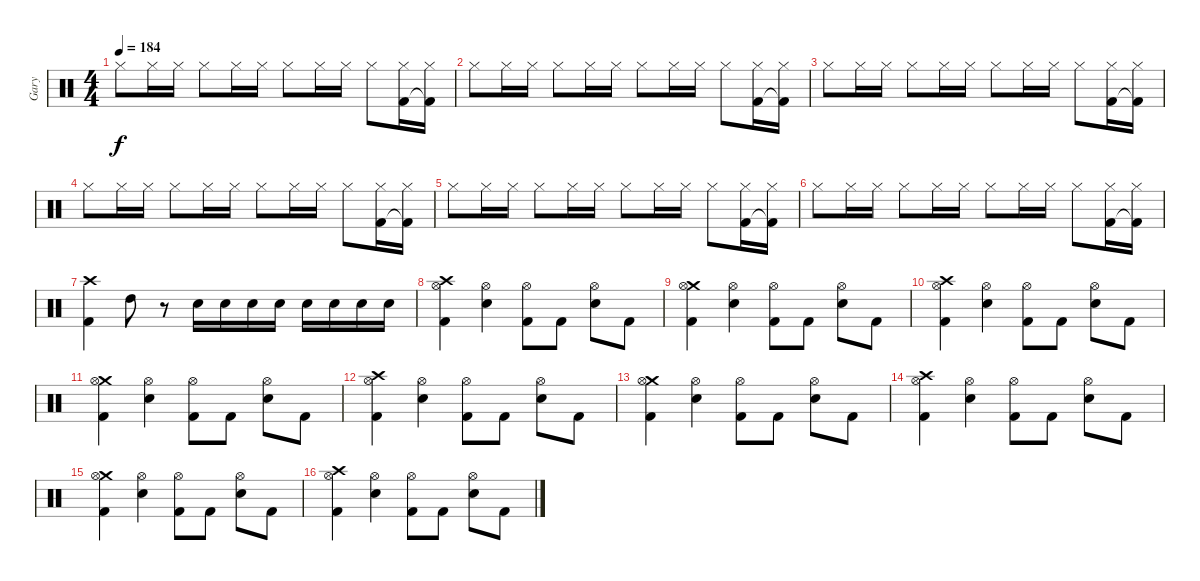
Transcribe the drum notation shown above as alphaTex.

\track ("Gary" "Gary") {instrument percussion}
\staff {score}
\articulation defaults
\ts (4 4)
\tempo 184
\clef neutral
\ks c "Hi-Hat (closed)".8{dy f} "Hi-Hat (closed)".16 "Hi-Hat (closed)".16 "Hi-Hat (closed)".8 "Hi-Hat (closed)".16 "Hi-Hat (closed)".16 "Hi-Hat (closed)".8 "Hi-Hat (closed)".16 "Hi-Hat (closed)".16 "Hi-Hat (closed)".8
("Hi-Hat (closed)" "Kick (hit) 2").16 ("Hi-Hat (closed)" "Kick (hit) 2"{t}).16 |
"Hi-Hat (closed)".8 "Hi-Hat (closed)".16 "Hi-Hat (closed)".16 "Hi-Hat (closed)".8 "Hi-Hat (closed)".16 "Hi-Hat (closed)".16 "Hi-Hat (closed)".8 "Hi-Hat (closed)".16 "Hi-Hat (closed)".16 "Hi-Hat (closed)".8 ("Hi-Hat (closed)" "Kick (hit) 2").16 ("Hi-Hat (closed)" "Kick (hit) 2"{t}).16 |
"Hi-Hat (closed)".8 "Hi-Hat (closed)".16 "Hi-Hat (closed)".16 "Hi-Hat (closed)".8 "Hi-Hat (closed)".16 "Hi-Hat (closed)".16 "Hi-Hat (closed)".8 "Hi-Hat (closed)".16 "Hi-Hat (closed)".16 "Hi-Hat (closed)".8 ("Hi-Hat (closed)" "Kick (hit) 2").16 ("Hi-Hat (closed)" "Kick (hit) 2"{t}).16 |
"Hi-Hat (closed)".8 "Hi-Hat (closed)".16 "Hi-Hat (closed)".16 "Hi-Hat (closed)".8 "Hi-Hat (closed)".16 "Hi-Hat (closed)".16 "Hi-Hat (closed)".8 "Hi-Hat (closed)".16 "Hi-Hat (closed)".16 "Hi-Hat (closed)".8 ("Hi-Hat (closed)" "Kick (hit) 2").16 ("Hi-Hat (closed)" "Kick (hit) 2"{t}).16 |
"Hi-Hat (closed)".8 "Hi-Hat (closed)".16 "Hi-Hat (closed)".16 "Hi-Hat (closed)".8 "Hi-Hat (closed)".16 "Hi-Hat (closed)".16 "Hi-Hat (closed)".8 "Hi-Hat (closed)".16 "Hi-Hat (closed)".16 "Hi-Hat (closed)".8 ("Hi-Hat (closed)" "Kick (hit) 2").16 ("Hi-Hat (closed)" "Kick (hit) 2"{t}).16 |
"Hi-Hat (closed)".8 "Hi-Hat (closed)".16 "Hi-Hat (closed)".16 "Hi-Hat (closed)".8 "Hi-Hat (closed)".16 "Hi-Hat (closed)".16 "Hi-Hat (closed)".8 "Hi-Hat (closed)".16 "Hi-Hat (closed)".16 "Hi-Hat (closed)".8 ("Hi-Hat (closed)" "Kick (hit) 2").16 ("Hi-Hat (closed)" "Kick (hit) 2"{t}).16 |
("Crash high (hit)" "Kick (hit) 2").4 "High Tom (hit)".8 r.8 "Electric Snare (hit)".16 "Electric Snare (hit)".16 "Electric Snare (hit)".16 "Electric Snare (hit)".16 "Electric Snare (hit)".16 "Electric Snare (hit)".16 "Electric Snare (hit)".16 "Electric Snare (hit)".16 |
("Crash high (hit)" "Hi-Hat (open)" "Kick (hit) 2").4 ("Hi-Hat (open)" "Snare (hit) 2").4 ("Hi-Hat (open)" "Kick (hit) 2").8 "Kick (hit) 2".8 ("Hi-Hat (open)" "Snare (hit) 2").8 "Kick (hit) 2".8 |
("Crash medium (hit)" "Hi-Hat (open)" "Kick (hit) 2").4 ("Hi-Hat (open)" "Snare (hit) 2").4 ("Hi-Hat (open)" "Kick (hit) 2").8 "Kick (hit) 2".8 ("Hi-Hat (open)" "Snare (hit) 2").8 "Kick (hit) 2".8 |
("Crash high (hit)" "Hi-Hat (open)" "Kick (hit) 2").4 ("Hi-Hat (open)" "Snare (hit) 2").4 ("Hi-Hat (open)" "Kick (hit) 2").8 "Kick (hit) 2".8 ("Hi-Hat (open)" "Snare (hit) 2").8 "Kick (hit) 2".8 |
("Crash medium (hit)" "Hi-Hat (open)" "Kick (hit) 2").4 ("Hi-Hat (open)" "Snare (hit) 2").4 ("Hi-Hat (open)" "Kick (hit) 2").8 "Kick (hit) 2".8 ("Hi-Hat (open)" "Snare (hit) 2").8 "Kick (hit) 2".8 |
("Crash high (hit)" "Hi-Hat (open)" "Kick (hit) 2").4 ("Hi-Hat (open)" "Snare (hit) 2").4 ("Hi-Hat (open)" "Kick (hit) 2").8 "Kick (hit) 2".8 ("Hi-Hat (open)" "Snare (hit) 2").8 "Kick (hit) 2".8 |
("Crash medium (hit)" "Hi-Hat (open)" "Kick (hit) 2").4 ("Hi-Hat (open)" "Snare (hit) 2").4 ("Hi-Hat (open)" "Kick (hit) 2").8 "Kick (hit) 2".8 ("Hi-Hat (open)" "Snare (hit) 2").8 "Kick (hit) 2".8 |
("Crash high (hit)" "Hi-Hat (open)" "Kick (hit) 2").4 ("Hi-Hat (open)" "Snare (hit) 2").4 ("Hi-Hat (open)" "Kick (hit) 2").8 "Kick (hit) 2".8 ("Hi-Hat (open)" "Snare (hit) 2").8 "Kick (hit) 2".8 |
("Crash medium (hit)" "Hi-Hat (open)" "Kick (hit) 2").4 ("Hi-Hat (open)" "Snare (hit) 2").4 ("Hi-Hat (open)" "Kick (hit) 2").8 "Kick (hit) 2".8 ("Hi-Hat (open)" "Snare (hit) 2").8 "Kick (hit) 2".8 |
("Crash high (hit)" "Hi-Hat (open)" "Kick (hit) 2").4 ("Hi-Hat (open)" "Snare (hit) 2").4 ("Hi-Hat (open)" "Kick (hit) 2").8 "Kick (hit) 2".8 ("Hi-Hat (open)" "Snare (hit) 2").8 "Kick (hit) 2".8
